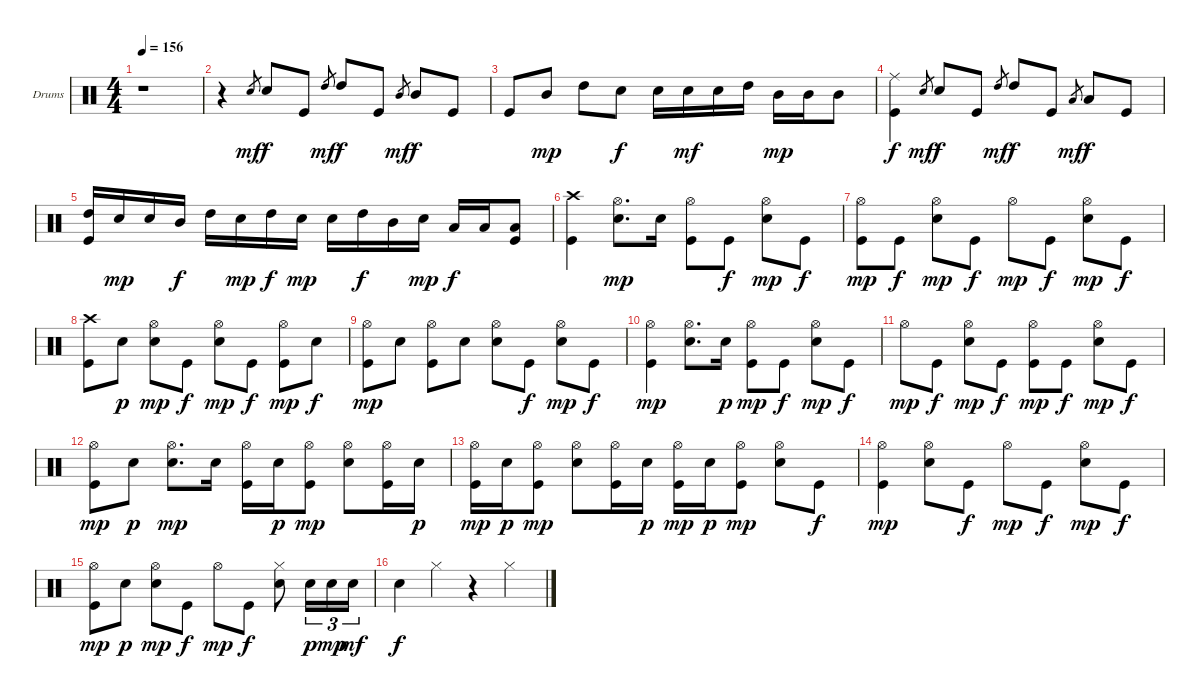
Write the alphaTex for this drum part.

\bracketExtendMode groupsimilarinstruments
\firstSystemTrackNameOrientation horizontal
\otherSystemsTrackNameOrientation horizontal
\track ("Drumkit" "Drums") {instrument percussion}
\staff {score}
\articulation defaults
\ts (4 4)
\tempo 156
\clef neutral
\ks c
r.1{dy mf} |
r.4 "Snare (hit) 2".8{gr} "Snare (hit) 2".8{dy f} "Kick (hit)".8 "High Tom (hit)".8{gr dy mf} "High Tom (hit)".8{dy f} "Kick (hit)".8 "Mid Tom (hit)".8{gr dy mf} "Mid Tom (hit)".8{dy f} "Kick (hit)".8 |
"Kick (hit)".8 "Mid Tom (hit)".8{dy mp} "High Tom (hit)".8 "Snare (hit) 2".8{dy f} "Snare (hit) 2".16 "Snare (hit) 2".16{dy mf} "Snare (hit) 2".16 "High Tom (hit)".16 "Mid Tom (hit)".16{dy mp} "Mid Tom (hit)".16 "Mid Tom (hit)".8 |
("Ride (middle)" "Kick (hit)").4{dy f} "Snare (hit) 2".8{gr dy mf} "Snare (hit) 2".8{dy f} "Kick (hit)".8 "High Tom (hit)".8{gr dy mf} "High Tom (hit)".8{dy f} "Kick (hit)".8 "Low Tom (hit)".8{gr dy mf} "Low Tom (hit)".8{dy f} "Kick (hit)".8 |
("High Tom (hit)" "Kick (hit)").16 "Snare (hit) 2".16{dy mp} "Snare (hit) 2".16 "Mid Tom (hit)".16{dy f} "High Tom (hit)".16 "Snare (hit) 2".16{dy mp} "High Tom (hit)".16{dy f} "Snare (hit) 2".16{dy mp} "Snare (hit) 2".16 "High Tom (hit)".16{dy f} "Mid Tom (hit)".16 "Snare (hit) 2".16{dy mp} "Low Tom (hit)".16{dy f} "Low Tom (hit)".16 ("Low Tom (hit)" "Kick (hit)").8 |
("Crash high (hit)" "Kick (hit)").4 ("Hi-Hat (open)" "Snare (hit) 2").8{d dy mp} "Snare (hit) 2".16 ("Hi-Hat (open)" "Kick (hit)").8 "Kick (hit)".8{dy f} ("Hi-Hat (open)" "Snare (hit) 2").8{dy mp} "Kick (hit)".8{dy f} |
("Hi-Hat (open)" "Kick (hit)").8{dy mp} "Kick (hit)".8{dy f} ("Hi-Hat (open)" "Snare (hit) 2").8{dy mp} "Kick (hit)".8{dy f} "Hi-Hat (open)".8{dy mp} "Kick (hit)".8{dy f} ("Hi-Hat (open)" "Snare (hit) 2").8{dy mp} "Kick (hit)".8{dy f} |
("Crash high (hit)" "Kick (hit)").8 "Snare (hit) 2".8{dy p} ("Hi-Hat (open)" "Snare (hit) 2").8{dy mp} "Kick (hit)".8{dy f} ("Hi-Hat (open)" "Snare (hit) 2").8{dy mp} "Kick (hit)".8{dy f} ("Hi-Hat (open)" "Kick (hit)").8{dy mp} "Snare (hit) 2".8{dy f} |
("Hi-Hat (open)" "Kick (hit)").8{dy mp} "Snare (hit) 2".8 ("Hi-Hat (open)" "Kick (hit)").8 "Snare (hit) 2".8 ("Hi-Hat (open)" "Snare (hit) 2").8 "Kick (hit)".8{dy f} ("Hi-Hat (open)" "Snare (hit) 2").8{dy mp} "Kick (hit)".8{dy f} |
("Hi-Hat (open)" "Kick (hit)").4{dy mp} ("Hi-Hat (open)" "Snare (hit) 2").8{d} "Snare (hit) 2".16{dy p} ("Hi-Hat (open)" "Kick (hit)").8{dy mp} "Kick (hit)".8{dy f} ("Hi-Hat (open)" "Snare (hit) 2").8{dy mp} "Kick (hit)".8{dy f} |
"Hi-Hat (open)".8{dy mp} "Kick (hit)".8{dy f} ("Hi-Hat (open)" "Snare (hit) 2").8{dy mp} "Kick (hit)".8{dy f} ("Hi-Hat (open)" "Kick (hit)").8{dy mp} "Kick (hit)".8{dy f} ("Hi-Hat (open)" "Snare (hit) 2").8{dy mp} "Kick (hit)".8{dy f} |
("Hi-Hat (open)" "Kick (hit)").8{dy mp} "Snare (hit) 2".8{dy p} ("Hi-Hat (open)" "Snare (hit) 2").8{d dy mp} "Snare (hit) 2".16 ("Hi-Hat (open)" "Kick (hit)").16 "Snare (hit) 2".16{dy p} ("Hi-Hat (open)" "Kick (hit)").8{dy mp} ("Hi-Hat (open)" "Snare (hit) 2").8 ("Hi-Hat (open)" "Kick (hit)").16 "Snare (hit) 2".16{dy p} |
("Hi-Hat (open)" "Kick (hit)").16{dy mp} "Snare (hit) 2".16{dy p} ("Hi-Hat (open)" "Kick (hit)").8{dy mp} ("Hi-Hat (open)" "Snare (hit) 2").8 ("Hi-Hat (open)" "Kick (hit)").16 "Snare (hit) 2".16{dy p} ("Hi-Hat (open)" "Kick (hit)").16{dy mp} "Snare (hit) 2".16{dy p} ("Hi-Hat (open)" "Kick (hit)").8{dy mp} ("Hi-Hat (open)" "Snare (hit) 2").8 "Kick (hit)".8{dy f} |
("Hi-Hat (open)" "Kick (hit)").4{dy mp} ("Hi-Hat (open)" "Snare (hit) 2").8 "Kick (hit)".8{dy f} "Hi-Hat (open)".8{dy mp} "Kick (hit)".8{dy f} ("Hi-Hat (open)" "Snare (hit) 2").8{dy mp} "Kick (hit)".8{dy f} |
("Hi-Hat (open)" "Kick (hit)").8{dy mp} "Snare (hit) 2".8{dy p} ("Hi-Hat (open)" "Snare (hit) 2").8{dy mp} "Kick (hit)".8{dy f} "Hi-Hat (open)".8{dy mp} "Kick (hit)".8{dy f} ("Hi-Hat (closed)" "Snare (hit) 2").8 "Snare (hit) 2".16{tu (3 2) dy p} "Snare (hit) 2".16{tu (3 2) dy mp} "Snare (hit) 2".16{tu (3 2) dy mf} |
"Snare (hit) 2".4{dy f} "Hi-Hat (closed)".4 r.4 "Hi-Hat (closed)".4
